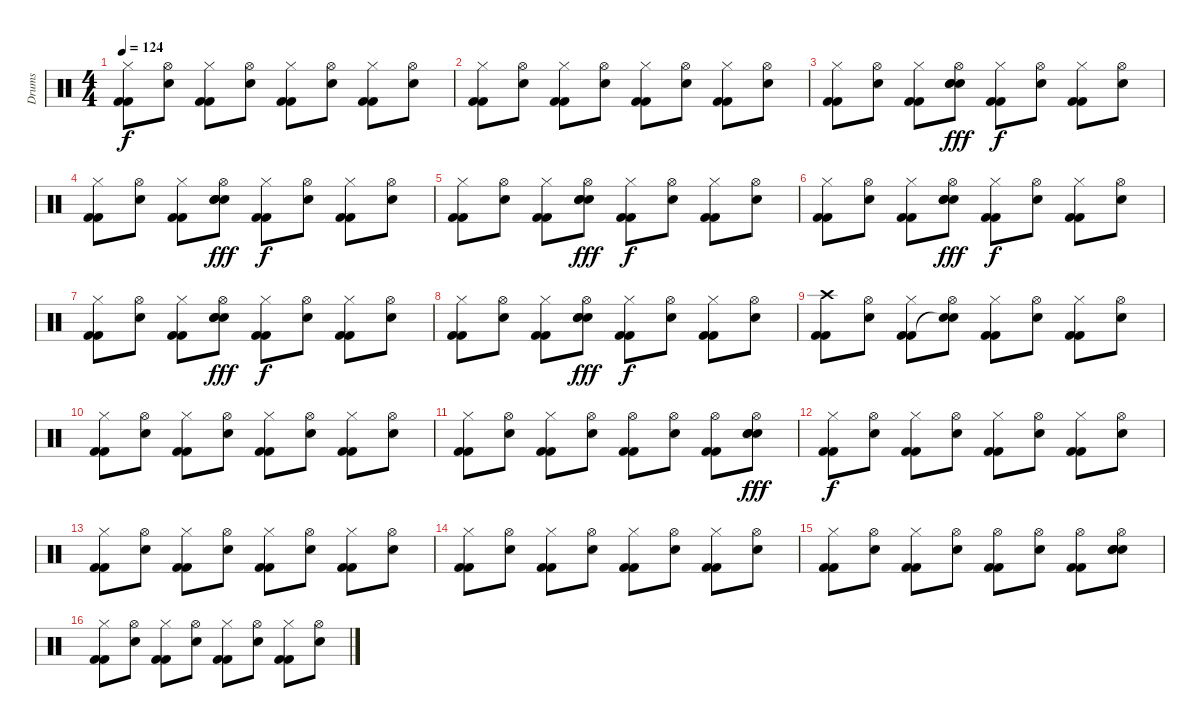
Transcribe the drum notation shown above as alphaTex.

\track ("Drums" "Drums") {instrument percussion}
\staff {score}
\articulation defaults
\ts (4 4)
\tempo 124
\clef neutral
\ks c
("Kick (hit) 2" "Kick (hit) 2" "Hi-Hat (closed)").8{dy f} ("Hand Clap (hit)" "Hi-Hat (open)").8 ("Kick (hit) 2" "Kick (hit) 2" "Hi-Hat (closed)").8 ("Hand Clap (hit)" "Hi-Hat (open)").8 ("Kick (hit) 2" "Kick (hit) 2" "Hi-Hat (closed)").8 ("Hand Clap (hit)" "Hi-Hat (open)").8 ("Kick (hit) 2" "Kick (hit) 2" "Hi-Hat (closed)").8 ("Hand Clap (hit)" "Hi-Hat (open)").8 |
("Kick (hit) 2" "Kick (hit) 2" "Hi-Hat (closed)").8 ("Hand Clap (hit)" "Hi-Hat (open)").8 ("Kick (hit) 2" "Kick (hit) 2" "Hi-Hat (closed)").8 ("Hand Clap (hit)" "Hi-Hat (open)").8 ("Kick (hit) 2" "Kick (hit) 2" "Hi-Hat (closed)").8 ("Hand Clap (hit)" "Hi-Hat (open)").8 ("Kick (hit) 2" "Kick (hit) 2" "Hi-Hat (closed)").8 ("Hand Clap (hit)" "Hi-Hat (open)").8 |
("Kick (hit) 2" "Kick (hit) 2" "Hi-Hat (closed)").8 ("Hand Clap (hit)" "Hi-Hat (open)").8 ("Kick (hit) 2" "Kick (hit) 2" "Hi-Hat (closed)").8 ("Hand Clap (hit)" "Electric Snare (hit)" "Electric Snare (hit)" "Hi-Hat (open)").8{dy fff} ("Kick (hit) 2" "Kick (hit) 2" "Hi-Hat (closed)").8{dy f} ("Hand Clap (hit)" "Hi-Hat (open)").8 ("Kick (hit) 2" "Kick (hit) 2" "Hi-Hat (closed)").8 ("Hand Clap (hit)" "Hi-Hat (open)").8 |
("Kick (hit) 2" "Kick (hit) 2" "Hi-Hat (closed)").8 ("Hand Clap (hit)" "Hi-Hat (open)").8 ("Kick (hit) 2" "Kick (hit) 2" "Hi-Hat (closed)").8 ("Hand Clap (hit)" "Electric Snare (hit)" "Electric Snare (hit)" "Hi-Hat (open)").8{dy fff} ("Kick (hit) 2" "Kick (hit) 2" "Hi-Hat (closed)").8{dy f} ("Hand Clap (hit)" "Hi-Hat (open)").8 ("Kick (hit) 2" "Kick (hit) 2" "Hi-Hat (closed)").8 ("Hand Clap (hit)" "Hi-Hat (open)").8 |
("Kick (hit) 2" "Kick (hit) 2" "Hi-Hat (closed)").8 ("Hand Clap (hit)" "Hi-Hat (open)").8 ("Kick (hit) 2" "Kick (hit) 2" "Hi-Hat (closed)").8 ("Hand Clap (hit)" "Electric Snare (hit)" "Electric Snare (hit)" "Hi-Hat (open)").8{dy fff} ("Kick (hit) 2" "Kick (hit) 2" "Hi-Hat (closed)").8{dy f} ("Hand Clap (hit)" "Hi-Hat (open)").8 ("Kick (hit) 2" "Kick (hit) 2" "Hi-Hat (closed)").8 ("Hand Clap (hit)" "Hi-Hat (open)").8 |
("Kick (hit) 2" "Kick (hit) 2" "Hi-Hat (closed)").8 ("Hand Clap (hit)" "Hi-Hat (open)").8 ("Kick (hit) 2" "Kick (hit) 2" "Hi-Hat (closed)").8 ("Hand Clap (hit)" "Electric Snare (hit)" "Electric Snare (hit)" "Hi-Hat (open)").8{dy fff} ("Kick (hit) 2" "Kick (hit) 2" "Hi-Hat (closed)").8{dy f} ("Hand Clap (hit)" "Hi-Hat (open)").8 ("Kick (hit) 2" "Kick (hit) 2" "Hi-Hat (closed)").8 ("Hand Clap (hit)" "Hi-Hat (open)").8 |
("Kick (hit) 2" "Kick (hit) 2" "Hi-Hat (closed)").8 ("Hand Clap (hit)" "Hi-Hat (open)").8 ("Kick (hit) 2" "Kick (hit) 2" "Hi-Hat (closed)").8 ("Hand Clap (hit)" "Electric Snare (hit)" "Electric Snare (hit)" "Hi-Hat (open)").8{dy fff} ("Kick (hit) 2" "Kick (hit) 2" "Hi-Hat (closed)").8{dy f} ("Hand Clap (hit)" "Hi-Hat (open)").8 ("Kick (hit) 2" "Kick (hit) 2" "Hi-Hat (closed)").8 ("Hand Clap (hit)" "Hi-Hat (open)").8 |
("Kick (hit) 2" "Kick (hit) 2" "Hi-Hat (closed)").8 ("Hand Clap (hit)" "Hi-Hat (open)").8 ("Kick (hit) 2" "Kick (hit) 2" "Hi-Hat (closed)").8 ("Hand Clap (hit)" "Electric Snare (hit)" "Electric Snare (hit)" "Hi-Hat (open)").8{dy fff} ("Kick (hit) 2" "Kick (hit) 2" "Hi-Hat (closed)").8{dy f} ("Hand Clap (hit)" "Hi-Hat (open)").8 ("Kick (hit) 2" "Kick (hit) 2" "Hi-Hat (closed)").8 ("Hand Clap (hit)" "Hi-Hat (open)").8 |
("Kick (hit) 2" "Kick (hit) 2" "Crash high (hit)").8 ("Hand Clap (hit)" "Hi-Hat (open)").8 ("Kick (hit) 2" "Kick (hit) 2" "Hi-Hat (closed)").8 ("Hand Clap (hit)" "Snare (hit)"{t} "Hi-Hat (open)").8 ("Kick (hit) 2" "Kick (hit) 2" "Hi-Hat (closed)").8 ("Hand Clap (hit)" "Hi-Hat (open)").8 ("Kick (hit) 2" "Kick (hit) 2" "Hi-Hat (closed)").8 ("Hand Clap (hit)" "Hi-Hat (open)").8 |
("Kick (hit) 2" "Kick (hit) 2" "Hi-Hat (closed)").8 ("Hand Clap (hit)" "Hi-Hat (open)").8 ("Kick (hit) 2" "Kick (hit) 2" "Hi-Hat (closed)").8 ("Hand Clap (hit)" "Hi-Hat (open)").8 ("Kick (hit) 2" "Kick (hit) 2" "Hi-Hat (closed)").8 ("Hand Clap (hit)" "Hi-Hat (open)").8 ("Kick (hit) 2" "Kick (hit) 2" "Hi-Hat (closed)").8 ("Hand Clap (hit)" "Hi-Hat (open)").8 |
("Kick (hit) 2" "Kick (hit) 2" "Hi-Hat (closed)").8 ("Hand Clap (hit)" "Hi-Hat (open)").8 ("Kick (hit) 2" "Kick (hit) 2" "Hi-Hat (closed)").8 ("Hand Clap (hit)" "Hi-Hat (open)").8 ("Kick (hit) 2" "Kick (hit) 2" "Hi-Hat (open)").8 ("Hand Clap (hit)" "Hi-Hat (open)").8 ("Kick (hit) 2" "Kick (hit) 2" "Hi-Hat (open)").8 ("Hand Clap (hit)" "Electric Snare (hit)" "Electric Snare (hit)" "Hi-Hat (open)").8{dy fff} |
("Kick (hit) 2" "Kick (hit) 2" "Hi-Hat (closed)").8{dy f} ("Hand Clap (hit)" "Hi-Hat (open)").8 ("Kick (hit) 2" "Kick (hit) 2" "Hi-Hat (closed)").8 ("Hand Clap (hit)" "Hi-Hat (open)").8 ("Kick (hit) 2" "Kick (hit) 2" "Hi-Hat (closed)").8 ("Hand Clap (hit)" "Hi-Hat (open)").8 ("Kick (hit) 2" "Kick (hit) 2" "Hi-Hat (closed)").8 ("Hand Clap (hit)" "Hi-Hat (open)").8 |
("Kick (hit) 2" "Kick (hit) 2" "Hi-Hat (closed)").8 ("Hand Clap (hit)" "Hi-Hat (open)").8 ("Kick (hit) 2" "Kick (hit) 2" "Hi-Hat (closed)").8 ("Hand Clap (hit)" "Hi-Hat (open)").8 ("Kick (hit) 2" "Kick (hit) 2" "Hi-Hat (closed)").8 ("Hand Clap (hit)" "Hi-Hat (open)").8 ("Kick (hit) 2" "Kick (hit) 2" "Hi-Hat (closed)").8 ("Hand Clap (hit)" "Hi-Hat (open)").8 |
("Kick (hit) 2" "Kick (hit) 2" "Hi-Hat (closed)").8 ("Hand Clap (hit)" "Hi-Hat (open)").8 ("Kick (hit) 2" "Kick (hit) 2" "Hi-Hat (closed)").8 ("Hand Clap (hit)" "Hi-Hat (open)").8 ("Kick (hit) 2" "Kick (hit) 2" "Hi-Hat (closed)").8 ("Hand Clap (hit)" "Hi-Hat (open)").8 ("Kick (hit) 2" "Kick (hit) 2" "Hi-Hat (closed)").8 ("Hand Clap (hit)" "Hi-Hat (open)").8 |
("Kick (hit) 2" "Kick (hit) 2" "Hi-Hat (closed)").8 ("Hand Clap (hit)" "Hi-Hat (open)").8 ("Kick (hit) 2" "Kick (hit) 2" "Hi-Hat (closed)").8 ("Hand Clap (hit)" "Hi-Hat (open)").8 ("Kick (hit) 2" "Kick (hit) 2" "Hi-Hat (open)").8 ("Hand Clap (hit)" "Hi-Hat (open)").8 ("Kick (hit) 2" "Kick (hit) 2" "Hi-Hat (open)").8 ("Hand Clap (hit)" "Electric Snare (hit)" "Electric Snare (hit)" "Hi-Hat (open)").8 |
("Kick (hit) 2" "Kick (hit) 2" "Hi-Hat (closed)").8 ("Hand Clap (hit)" "Hi-Hat (open)").8 ("Kick (hit) 2" "Kick (hit) 2" "Hi-Hat (closed)").8 ("Hand Clap (hit)" "Hi-Hat (open)").8 ("Kick (hit) 2" "Kick (hit) 2" "Hi-Hat (closed)").8 ("Hand Clap (hit)" "Hi-Hat (open)").8 ("Kick (hit) 2" "Kick (hit) 2" "Hi-Hat (closed)").8 ("Hand Clap (hit)" "Hi-Hat (open)").8
